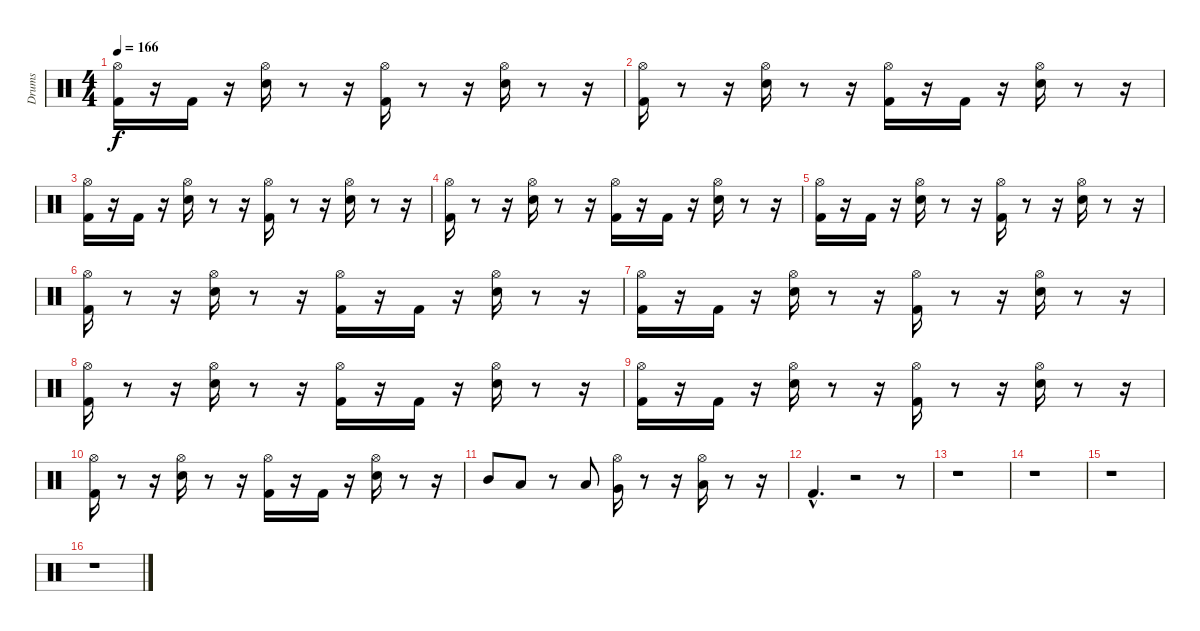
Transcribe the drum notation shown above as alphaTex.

\track ("Drums" "Drums") {instrument percussion}
\staff {score}
\articulation defaults
\ts (4 4)
\tempo 166
\clef neutral
\ks c
("Hi-Hat (open)" "Kick (hit) 2").16{dy f} r.16 "Kick (hit) 2".16 r.16 ("Snare (hit) 2" "Hi-Hat (open)").16 r.8 r.16 ("Hi-Hat (open)" "Kick (hit) 2").16 r.8 r.16 ("Hi-Hat (open)" "Snare (hit) 2").16 r.8 r.16 |
("Hi-Hat (open)" "Kick (hit) 2").16 r.8 r.16 ("Snare (hit) 2" "Hi-Hat (open)").16 r.8 r.16 ("Kick (hit) 2" "Hi-Hat (open)").16 r.16 "Kick (hit) 2".16 r.16 ("Hi-Hat (open)" "Snare (hit) 2").16 r.8 r.16 |
("Hi-Hat (open)" "Kick (hit) 2").16 r.16 "Kick (hit) 2".16 r.16 ("Snare (hit) 2" "Hi-Hat (open)").16 r.8 r.16 ("Hi-Hat (open)" "Kick (hit) 2").16 r.8 r.16 ("Hi-Hat (open)" "Snare (hit) 2").16 r.8 r.16 |
("Hi-Hat (open)" "Kick (hit) 2").16 r.8 r.16 ("Snare (hit) 2" "Hi-Hat (open)").16 r.8 r.16 ("Kick (hit) 2" "Hi-Hat (open)").16 r.16 "Kick (hit) 2".16 r.16 ("Hi-Hat (open)" "Snare (hit) 2").16 r.8 r.16 |
("Hi-Hat (open)" "Kick (hit) 2").16 r.16 "Kick (hit) 2".16 r.16 ("Snare (hit) 2" "Hi-Hat (open)").16 r.8 r.16 ("Hi-Hat (open)" "Kick (hit) 2").16 r.8 r.16 ("Hi-Hat (open)" "Snare (hit) 2").16 r.8 r.16 |
("Hi-Hat (open)" "Kick (hit) 2").16 r.8 r.16 ("Snare (hit) 2" "Hi-Hat (open)").16 r.8 r.16 ("Kick (hit) 2" "Hi-Hat (open)").16 r.16 "Kick (hit) 2".16 r.16 ("Hi-Hat (open)" "Snare (hit) 2").16 r.8 r.16 |
("Hi-Hat (open)" "Kick (hit) 2").16 r.16 "Kick (hit) 2".16 r.16 ("Snare (hit) 2" "Hi-Hat (open)").16 r.8 r.16 ("Hi-Hat (open)" "Kick (hit) 2").16 r.8 r.16 ("Hi-Hat (open)" "Snare (hit) 2").16 r.8 r.16 |
("Hi-Hat (open)" "Kick (hit) 2").16 r.8 r.16 ("Snare (hit) 2" "Hi-Hat (open)").16 r.8 r.16 ("Kick (hit) 2" "Hi-Hat (open)").16 r.16 "Kick (hit) 2".16 r.16 ("Hi-Hat (open)" "Snare (hit) 2").16 r.8 r.16 |
("Hi-Hat (open)" "Kick (hit) 2").16 r.16 "Kick (hit) 2".16 r.16 ("Snare (hit) 2" "Hi-Hat (open)").16 r.8 r.16 ("Hi-Hat (open)" "Kick (hit) 2").16 r.8 r.16 ("Hi-Hat (open)" "Snare (hit) 2").16 r.8 r.16 |
("Hi-Hat (open)" "Kick (hit) 2").16 r.8 r.16 ("Snare (hit) 2" "Hi-Hat (open)").16 r.8 r.16 ("Kick (hit) 2" "Hi-Hat (open)").16 r.16 "Kick (hit) 2".16 r.16 ("Hi-Hat (open)" "Snare (hit) 2").16 r.8 r.16 |
"Mid Tom (hit)".8 "Low Tom (hit)".8 r.8 "Low Tom (hit)".8 ("Very Low Tom (hit)" "Hi-Hat (open)").16 r.8 r.16 ("Low Floor Tom (hit)" "Hi-Hat (open)").16 r.8 r.16 |
"Kick (hit) 2"{hac}.4{d} r.2 r.8 |
r.1 |
r.1 |
r.1 |
r.1
